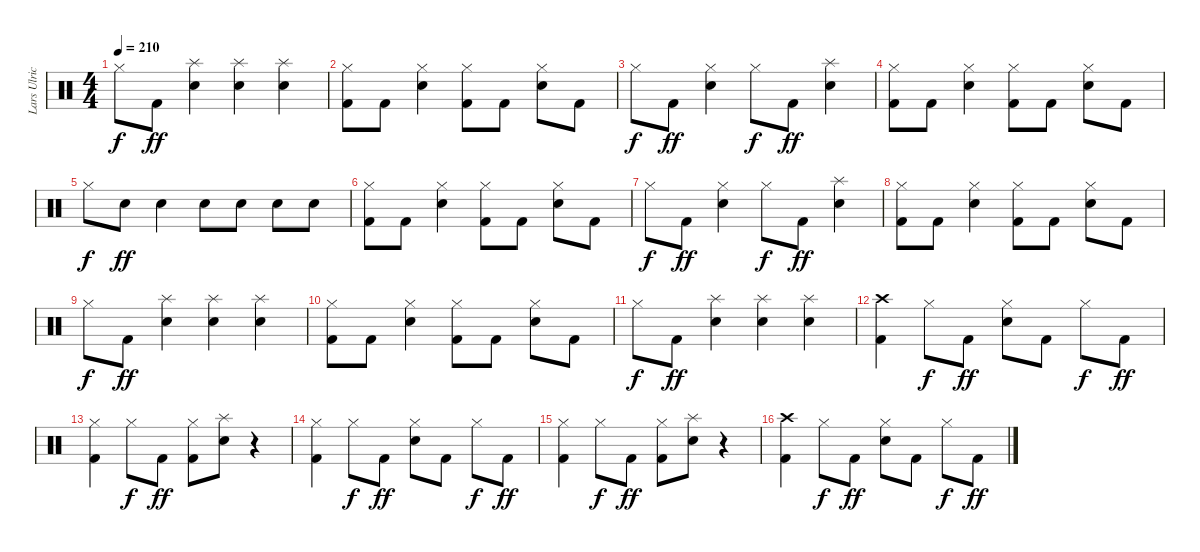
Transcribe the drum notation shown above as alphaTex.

\track ("Lars Ulrich" "Lars Ulric") {instrument percussion}
\staff {score}
\articulation defaults
\ts (4 4)
\tempo 210
\clef neutral
\ks c "Hi-Hat (closed)".8{dy f} "Kick (hit) 2".8{dy ff}
("Splash (hit)" "Snare (hit) 2").4 ("Splash (hit)" "Snare (hit) 2").4 ("Splash (hit)" "Snare (hit) 2").4 |
("Hi-Hat (closed)" "Kick (hit) 2").8 "Kick (hit) 2".8 ("Hi-Hat (closed)" "Snare (hit) 2").4 ("Hi-Hat (closed)" "Kick (hit) 2").8 "Kick (hit) 2".8 ("Hi-Hat (closed)" "Snare (hit) 2").8 "Kick (hit) 2".8 |
"Hi-Hat (closed)".8{dy f} "Kick (hit) 2".8{dy ff} ("Hi-Hat (closed)" "Snare (hit) 2").4 "Hi-Hat (closed)".8{dy f} "Kick (hit) 2".8{dy ff} ("Splash (hit)" "Snare (hit) 2").4 |
("Hi-Hat (closed)" "Kick (hit) 2").8 "Kick (hit) 2".8 ("Hi-Hat (closed)" "Snare (hit) 2").4 ("Hi-Hat (closed)" "Kick (hit) 2").8 "Kick (hit) 2".8 ("Hi-Hat (closed)" "Snare (hit) 2").8 "Kick (hit) 2".8 |
"Hi-Hat (closed)".8{dy f} "Snare (hit) 2".8{dy ff} "Snare (hit) 2".4 "Snare (hit) 2".8 "Snare (hit) 2".8 "Snare (hit) 2".8 "Snare (hit) 2".8 |
("Hi-Hat (closed)" "Kick (hit) 2").8 "Kick (hit) 2".8 ("Hi-Hat (closed)" "Snare (hit) 2").4 ("Hi-Hat (closed)" "Kick (hit) 2").8 "Kick (hit) 2".8 ("Hi-Hat (closed)" "Snare (hit) 2").8 "Kick (hit) 2".8 |
"Hi-Hat (closed)".8{dy f} "Kick (hit) 2".8{dy ff} ("Hi-Hat (closed)" "Snare (hit) 2").4 "Hi-Hat (closed)".8{dy f} "Kick (hit) 2".8{dy ff} ("Splash (hit)" "Snare (hit) 2").4 |
("Hi-Hat (closed)" "Kick (hit) 2").8 "Kick (hit) 2".8 ("Hi-Hat (closed)" "Snare (hit) 2").4 ("Hi-Hat (closed)" "Kick (hit) 2").8 "Kick (hit) 2".8 ("Hi-Hat (closed)" "Snare (hit) 2").8 "Kick (hit) 2".8 |
"Hi-Hat (closed)".8{dy f} "Kick (hit) 2".8{dy ff} ("Splash (hit)" "Snare (hit) 2").4 ("Splash (hit)" "Snare (hit) 2").4 ("Splash (hit)" "Snare (hit) 2").4 |
("Hi-Hat (closed)" "Kick (hit) 2").8 "Kick (hit) 2".8 ("Hi-Hat (closed)" "Snare (hit) 2").4 ("Hi-Hat (closed)" "Kick (hit) 2").8 "Kick (hit) 2".8 ("Hi-Hat (closed)" "Snare (hit) 2").8 "Kick (hit) 2".8 |
"Hi-Hat (closed)".8{dy f} "Kick (hit) 2".8{dy ff} ("Splash (hit)" "Snare (hit) 2").4 ("Splash (hit)" "Snare (hit) 2").4 ("Splash (hit)" "Snare (hit) 2").4 |
("Crash high (hit)" "Kick (hit) 2").4 "Hi-Hat (closed)".8{dy f} "Kick (hit) 2".8{dy ff} ("Hi-Hat (closed)" "Snare (hit) 2").8 "Kick (hit) 2".8 "Hi-Hat (closed)".8{dy f} "Kick (hit) 2".8{dy ff} |
("Hi-Hat (closed)" "Kick (hit) 2").4 "Hi-Hat (closed)".8{dy f} "Kick (hit) 2".8{dy ff} ("Hi-Hat (closed)" "Kick (hit) 2").8 ("Splash (hit)" "Snare (hit) 2").8 r.4 |
("Hi-Hat (closed)" "Kick (hit) 2").4 "Hi-Hat (closed)".8{dy f} "Kick (hit) 2".8{dy ff} ("Hi-Hat (closed)" "Snare (hit) 2").8 "Kick (hit) 2".8 "Hi-Hat (closed)".8{dy f} "Kick (hit) 2".8{dy ff} |
("Hi-Hat (closed)" "Kick (hit) 2").4 "Hi-Hat (closed)".8{dy f} "Kick (hit) 2".8{dy ff} ("Hi-Hat (closed)" "Kick (hit) 2").8 ("Splash (hit)" "Snare (hit) 2").8 r.4 |
("Crash high (hit)" "Kick (hit) 2").4 "Hi-Hat (closed)".8{dy f} "Kick (hit) 2".8{dy ff} ("Hi-Hat (closed)" "Snare (hit) 2").8 "Kick (hit) 2".8 "Hi-Hat (closed)".8{dy f} "Kick (hit) 2".8{dy ff}
